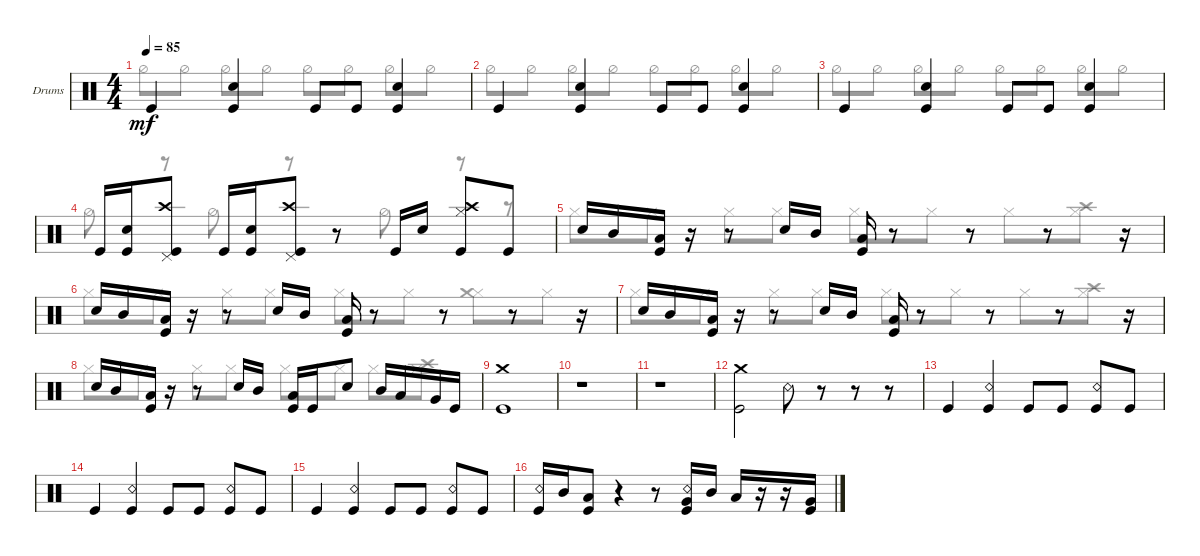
\defaultSystemsLayout 4
\bracketExtendMode groupsimilarinstruments
\firstSystemTrackNameOrientation horizontal
\otherSystemsTrackNameOrientation horizontal
\track ("Drumkit" "Drums") {instrument percussion}
\staff {score}
\articulation defaults
\voice
\ts (4 4)
\tempo 85
\clef neutral
\scale
0.333333
\ks c "Kick (hit)".4{dy mf}
("Kick (hit)" "Snare (hit) 2").4 "Kick (hit)".8 "Kick (hit)".8 ("Kick (hit)" "Snare (hit) 2").4 |
\scale
0.333333 "Kick (hit)".4 ("Kick (hit)" "Snare (hit) 2").4 "Kick (hit)".8 "Kick (hit)".8 ("Kick (hit)" "Snare (hit) 2").4 |
\scale
0.333333 "Kick (hit)".4 ("Kick (hit)" "Snare (hit) 2").4 "Kick (hit)".8 "Kick (hit)".8 ("Kick (hit)" "Snare (hit) 2").4 |
\scale
0.333333 "Kick (hit)".16 ("Kick (hit)" "Snare (hit) 2").16 ("Kick (hit)" "Pedal Hi-Hat (hit)" "Crash high (hit)").8 "Kick (hit)".16 ("Kick (hit)" "Snare (hit) 2").16 ("Kick (hit)" "Pedal Hi-Hat (hit)" "Crash high (hit)").8 r.8 "Kick (hit)".16 "Snare (hit) 2".16 ("Kick (hit)" "Hi-Hat (closed)" "Crash high (hit)").8 "Kick (hit)".8 |
\scale
0.333333 "Snare (hit) 2".16 "Mid Tom (hit)".16 ("Low Tom (hit)" "Kick (hit)").16 r.16 r.8 "Snare (hit) 2".16 "Mid Tom (hit)".16 ("Low Tom (hit)" "Kick (hit)").16 r.8 r.8 r.8 r.16 |
\scale
0.333333 "Snare (hit) 2".16 "Mid Tom (hit)".16 ("Low Tom (hit)" "Kick (hit)").16 r.16 r.8 "Snare (hit) 2".16 "Mid Tom (hit)".16 ("Low Tom (hit)" "Kick (hit)").16 r.8 r.8 r.8 r.16 |
\scale
0.333333 "Snare (hit) 2".16 "Mid Tom (hit)".16 ("Low Tom (hit)" "Kick (hit)").16 r.16 r.8 "Snare (hit) 2".16 "Mid Tom (hit)".16 ("Low Tom (hit)" "Kick (hit)").16 r.8 r.8 r.8 r.16 |
\scale
0.333333 "Snare (hit) 2".16 "Mid Tom (hit)".16 ("Low Tom (hit)" "Kick (hit)").16 r.16 r.8 "Snare (hit) 2".16 "Mid Tom (hit)".16 ("Low Tom (hit)" "Kick (hit)").16 "Kick (hit)".16 "Snare (hit) 2".8 "Mid Tom (hit)".16 "Low Tom (hit)".16 "Very Low Tom (hit)".16 "Kick (hit)".16 |
\scale
0.333333 ("Crash medium (hit)" "Kick (hit)").1 |
r.1 |
r.1 |
\scale
0.333333 ("Crash medium (hit)" "Kick (hit)").2 "Snare (rim shot)".8 r.8 r.8 r.8 |
\scale
0.333333 "Kick (hit)".4 ("Snare (rim shot)" "Kick (hit)").4 "Kick (hit)".8 "Kick (hit)".8 ("Snare (rim shot)" "Kick (hit)").8 "Kick (hit)".8 |
\scale
0.333333 "Kick (hit)".4 ("Snare (rim shot)" "Kick (hit)").4 "Kick (hit)".8 "Kick (hit)".8 ("Snare (rim shot)" "Kick (hit)").8 "Kick (hit)".8 |
\scale
0.333333 "Kick (hit)".4 ("Snare (rim shot)" "Kick (hit)").4 "Kick (hit)".8 "Kick (hit)".8 ("Snare (rim shot)" "Kick (hit)").8 "Kick (hit)".8 |
\scale
0.333333 ("Kick (hit)" "Snare (rim shot)").16 "Mid Tom (hit)".16 ("Kick (hit)" "Low Tom (hit)").8 r.4 r.8 ("Kick (hit)" "Very Low Tom (hit)" "Snare (rim shot)").16 "Mid Tom (hit)".16 "Low Tom (hit)".16 r.16 r.16 ("Very Low Tom (hit)" "Kick (hit)").16
\voice
\clef neutral
\ottava regular
\simile none
\scale
0.333333
\ks c "Hi-Hat (half)".8{dy mf} "Hi-Hat (half)".8 "Hi-Hat (half)".8 "Hi-Hat (half)".8 "Hi-Hat (half)".8 "Hi-Hat (half)".8 "Hi-Hat (half)".8 "Hi-Hat (half)".8
|
\scale
0.333333 "Hi-Hat (half)".8 "Hi-Hat (half)".8 "Hi-Hat (half)".8 "Hi-Hat (half)".8 "Hi-Hat (half)".8 "Hi-Hat (half)".8 "Hi-Hat (half)".8 "Hi-Hat (half)".8 |
\scale
0.333333 "Hi-Hat (half)".8 "Hi-Hat (half)".8 "Hi-Hat (half)".8 "Hi-Hat (half)".8 "Hi-Hat (half)".8 "Hi-Hat (half)".8 "Hi-Hat (half)".8 "Hi-Hat (half)".8 |
\scale
0.333333 "Hi-Hat (half)".8 r.8 "Hi-Hat (half)".8 r.8 r.8 "Hi-Hat (half)".8 r.8 r.8 |
\scale
0.333333 "Hi-Hat (closed)".8 "Hi-Hat (closed)".8 "Hi-Hat (closed)".8 "Hi-Hat (closed)".8 "Hi-Hat (closed)".8 "Hi-Hat (closed)".8 "Hi-Hat (closed)".8 ("Hi-Hat (closed)" "Crash high (hit)").8 |
\scale
0.333333 "Hi-Hat (closed)".8 "Hi-Hat (closed)".8 "Hi-Hat (closed)".8 "Hi-Hat (closed)".8 "Hi-Hat (closed)".8 "Hi-Hat (closed)".8 ("Hi-Hat (closed)" "Crash medium (hit)").8 "Hi-Hat (closed)".8 |
\scale
0.333333 "Hi-Hat (closed)".8 "Hi-Hat (closed)".8 "Hi-Hat (closed)".8 "Hi-Hat (closed)".8 "Hi-Hat (closed)".8 "Hi-Hat (closed)".8 "Hi-Hat (closed)".8 ("Hi-Hat (closed)" "Crash high (hit)").8 |
\scale
0.333333 "Hi-Hat (closed)".8 "Hi-Hat (closed)".8 "Hi-Hat (closed)".8 "Hi-Hat (closed)".8 "Hi-Hat (closed)".8 "Hi-Hat (closed)".8 "Hi-Hat (closed)".8 ("Hi-Hat (closed)" "Crash high (hit)").8 |
\scale
0.333333 |
|
|
\scale
0.333333 |
\scale
0.333333 |
\scale
0.333333 |
\scale
0.333333 |
\scale
0.333333
